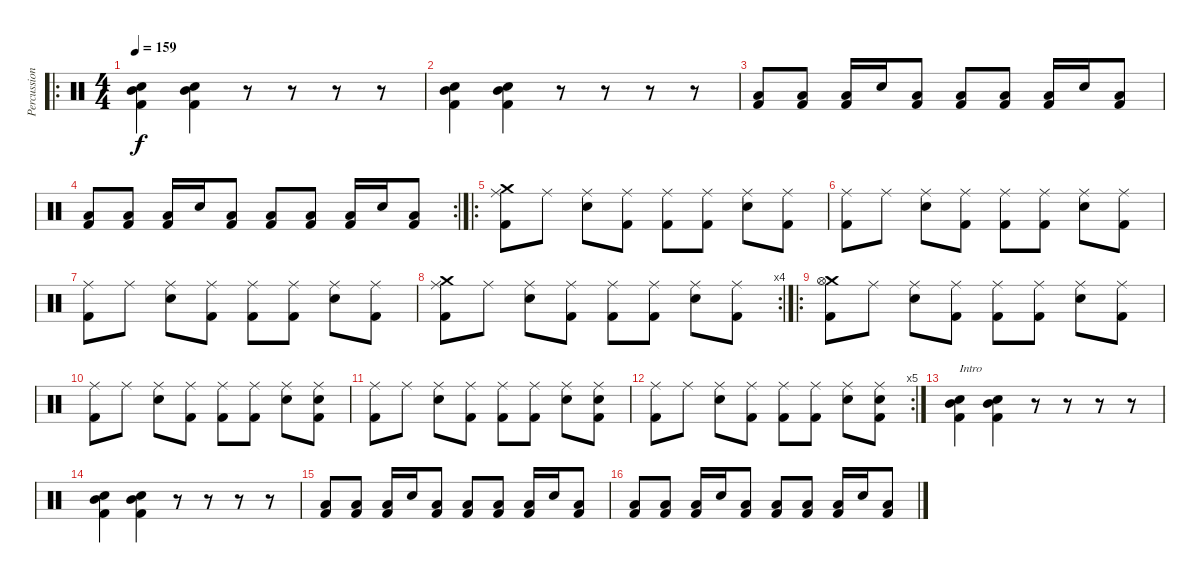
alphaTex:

\track ("Percussion" "Percussion") {instrument percussion}
\staff {score}
\articulation defaults
\ro
\ts (4 4)
\tempo 159
\clef neutral
\ks c
("Mid Tom (hit)" "Kick (hit) 2" "Electric Snare (hit)").4{dy f} ("Mid Tom (hit)" "Kick (hit) 2" "Electric Snare (hit)").4 r.8 r.8 r.8 r.8 |
("Mid Tom (hit)" "Kick (hit) 2" "Electric Snare (hit)").4 ("Mid Tom (hit)" "Kick (hit) 2" "Electric Snare (hit)").4 r.8 r.8 r.8 r.8 |
("Kick (hit) 2" "Low Tom (hit)").8 ("Kick (hit) 2" "Low Tom (hit)").8 ("Kick (hit) 2" "Low Tom (hit)").16 "Electric Snare (hit)".16 ("Kick (hit) 2" "Low Tom (hit)").8 ("Kick (hit) 2" "Low Tom (hit)").8 ("Kick (hit) 2" "Low Tom (hit)").8 ("Kick (hit) 2" "Low Tom (hit)").16 "Electric Snare (hit)".16 ("Kick (hit) 2" "Low Tom (hit)").8 |
\rc 2
("Kick (hit) 2" "Low Tom (hit)").8 ("Kick (hit) 2" "Low Tom (hit)").8 ("Kick (hit) 2" "Low Tom (hit)").16 "Electric Snare (hit)".16 ("Kick (hit) 2" "Low Tom (hit)").8 ("Kick (hit) 2" "Low Tom (hit)").8 ("Kick (hit) 2" "Low Tom (hit)").8 ("Kick (hit) 2" "Low Tom (hit)").16 "Electric Snare (hit)".16 ("Kick (hit) 2" "Low Tom (hit)").8 |
\ro
("Crash medium (hit)" "Kick (hit) 2" "Ride (middle)").8 "Ride (middle)".8 ("Electric Snare (hit)" "Ride (middle)").8 ("Kick (hit) 2" "Ride (middle)").8 ("Kick (hit) 2" "Ride (middle)").8 ("Kick (hit) 2" "Ride (middle)").8 ("Electric Snare (hit)" "Ride (middle)").8 ("Kick (hit) 2" "Ride (middle)").8 |
("Kick (hit) 2" "Ride (middle)").8 "Ride (middle)".8 ("Electric Snare (hit)" "Ride (middle)").8 ("Kick (hit) 2" "Ride (middle)").8 ("Kick (hit) 2" "Ride (middle)").8 ("Kick (hit) 2" "Ride (middle)").8 ("Electric Snare (hit)" "Ride (middle)").8 ("Kick (hit) 2" "Ride (middle)").8 |
("Kick (hit) 2" "Ride (middle)").8 "Ride (middle)".8 ("Electric Snare (hit)" "Ride (middle)").8 ("Kick (hit) 2" "Ride (middle)").8 ("Kick (hit) 2" "Ride (middle)").8 ("Kick (hit) 2" "Ride (middle)").8 ("Electric Snare (hit)" "Ride (middle)").8 ("Kick (hit) 2" "Ride (middle)").8 |
\rc 4
("Crash medium (hit)" "Kick (hit) 2" "Ride (middle)").8 "Ride (middle)".8 ("Electric Snare (hit)" "Ride (middle)").8 ("Kick (hit) 2" "Ride (middle)").8 ("Kick (hit) 2" "Ride (middle)").8 ("Kick (hit) 2" "Ride (middle)").8 ("Electric Snare (hit)" "Ride (middle)").8 ("Kick (hit) 2" "Ride (middle)").8 |
\ro
("Crash medium (hit)" "Kick (hit) 2" "Hi-Hat (open)").8 "Ride (middle)".8 ("Electric Snare (hit)" "Ride (middle)").8 ("Kick (hit) 2" "Ride (middle)").8 ("Kick (hit) 2" "Ride (middle)").8 ("Kick (hit) 2" "Ride (middle)").8 ("Electric Snare (hit)" "Ride (middle)").8 ("Kick (hit) 2" "Ride (middle)").8 |
("Kick (hit) 2" "Ride (middle)").8 "Ride (middle)".8 ("Electric Snare (hit)" "Ride (middle)").8 ("Kick (hit) 2" "Ride (middle)").8 ("Kick (hit) 2" "Ride (middle)").8 ("Kick (hit) 2" "Ride (middle)").8 ("Electric Snare (hit)" "Ride (middle)").8 ("Kick (hit) 2" "Electric Snare (hit)" "Ride (middle)").8 |
("Kick (hit) 2" "Ride (middle)").8 "Ride (middle)".8 ("Electric Snare (hit)" "Ride (middle)").8 ("Kick (hit) 2" "Ride (middle)").8 ("Kick (hit) 2" "Ride (middle)").8 ("Kick (hit) 2" "Ride (middle)").8 ("Electric Snare (hit)" "Ride (middle)").8 ("Kick (hit) 2" "Electric Snare (hit)" "Ride (middle)").8 |
\rc 5
("Kick (hit) 2" "Ride (middle)").8 "Ride (middle)".8 ("Electric Snare (hit)" "Ride (middle)").8 ("Kick (hit) 2" "Ride (middle)").8 ("Kick (hit) 2" "Ride (middle)").8 ("Kick (hit) 2" "Ride (middle)").8 ("Electric Snare (hit)" "Ride (middle)").8 ("Kick (hit) 2" "Electric Snare (hit)" "Ride (middle)").8 |
("Mid Tom (hit)" "Kick (hit) 2" "Electric Snare (hit)").4{txt "Intro "} ("Mid Tom (hit)" "Kick (hit) 2" "Electric Snare (hit)").4 r.8 r.8 r.8 r.8 |
("Mid Tom (hit)" "Kick (hit) 2" "Electric Snare (hit)").4 ("Mid Tom (hit)" "Kick (hit) 2" "Electric Snare (hit)").4 r.8 r.8 r.8 r.8 |
("Kick (hit) 2" "Low Tom (hit)").8 ("Kick (hit) 2" "Low Tom (hit)").8 ("Kick (hit) 2" "Low Tom (hit)").16 "Electric Snare (hit)".16 ("Kick (hit) 2" "Low Tom (hit)").8 ("Kick (hit) 2" "Low Tom (hit)").8 ("Kick (hit) 2" "Low Tom (hit)").8 ("Kick (hit) 2" "Low Tom (hit)").16 "Electric Snare (hit)".16 ("Kick (hit) 2" "Low Tom (hit)").8 |
("Kick (hit) 2" "Low Tom (hit)").8 ("Kick (hit) 2" "Low Tom (hit)").8 ("Kick (hit) 2" "Low Tom (hit)").16 "Electric Snare (hit)".16 ("Kick (hit) 2" "Low Tom (hit)").8 ("Kick (hit) 2" "Low Tom (hit)").8 ("Kick (hit) 2" "Low Tom (hit)").8 ("Kick (hit) 2" "Low Tom (hit)").16 "Electric Snare (hit)".16 ("Kick (hit) 2" "Low Tom (hit)").8
